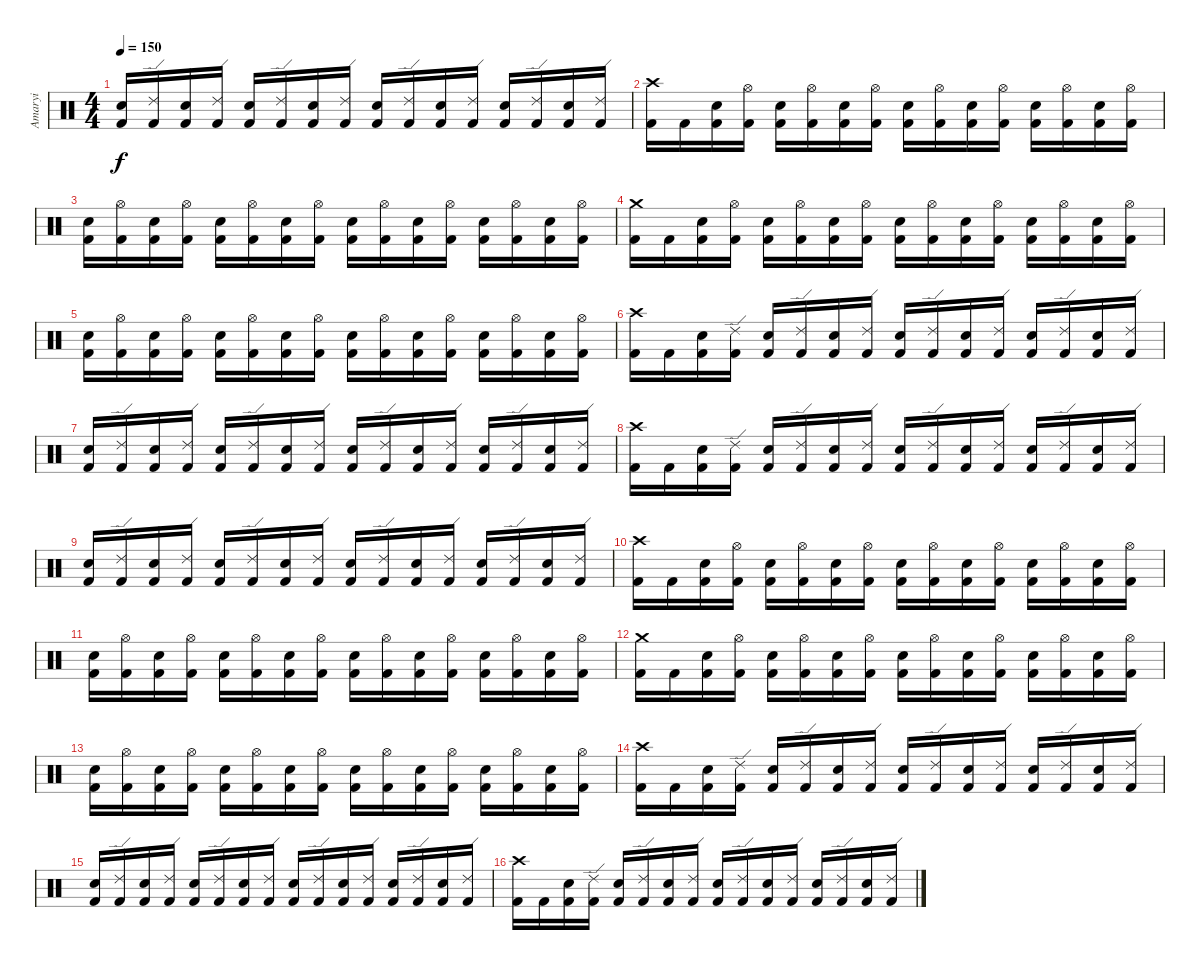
\track ("Amaryi" "Amaryi") {instrument percussion}
\staff {score}
\articulation defaults
\ts (4 4)
\tempo 150
\clef neutral
\ks c
("Electric Snare (hit)" "Kick (hit) 2").16{dy f} ("Ride (edge) 2" "Kick (hit) 2").16 ("Electric Snare (hit)" "Kick (hit) 2").16 ("Ride (edge) 2" "Kick (hit) 2").16 ("Electric Snare (hit)" "Kick (hit) 2").16 ("Ride (edge) 2" "Kick (hit) 2").16 ("Electric Snare (hit)" "Kick (hit) 2").16 ("Ride (edge) 2" "Kick (hit) 2").16 ("Electric Snare (hit)" "Kick (hit) 2").16 ("Ride (edge) 2" "Kick (hit) 2").16 ("Electric Snare (hit)" "Kick (hit) 2").16 ("Ride (edge) 2" "Kick (hit) 2").16 ("Electric Snare (hit)" "Kick (hit) 2").16 ("Ride (edge) 2" "Kick (hit) 2").16 ("Electric Snare (hit)" "Kick (hit) 2").16 ("Ride (edge) 2" "Kick (hit) 2").16 |
("Crash high (hit)" "Kick (hit) 2").16 "Kick (hit) 2".16 ("Electric Snare (hit)" "Kick (hit) 2").16 ("Hi-Hat (open)" "Kick (hit) 2").16 ("Electric Snare (hit)" "Kick (hit) 2").16 ("Hi-Hat (open)" "Kick (hit) 2").16 ("Electric Snare (hit)" "Kick (hit) 2").16 ("Hi-Hat (open)" "Kick (hit) 2").16 ("Electric Snare (hit)" "Kick (hit) 2").16 ("Hi-Hat (open)" "Kick (hit) 2").16 ("Electric Snare (hit)" "Kick (hit) 2").16 ("Hi-Hat (open)" "Kick (hit) 2").16 ("Electric Snare (hit)" "Kick (hit) 2").16 ("Hi-Hat (open)" "Kick (hit) 2").16 ("Electric Snare (hit)" "Kick (hit) 2").16 ("Hi-Hat (open)" "Kick (hit) 2").16 |
("Electric Snare (hit)" "Kick (hit) 2").16 ("Hi-Hat (open)" "Kick (hit) 2").16 ("Electric Snare (hit)" "Kick (hit) 2").16 ("Hi-Hat (open)" "Kick (hit) 2").16 ("Electric Snare (hit)" "Kick (hit) 2").16 ("Hi-Hat (open)" "Kick (hit) 2").16 ("Electric Snare (hit)" "Kick (hit) 2").16 ("Hi-Hat (open)" "Kick (hit) 2").16 ("Electric Snare (hit)" "Kick (hit) 2").16 ("Hi-Hat (open)" "Kick (hit) 2").16 ("Electric Snare (hit)" "Kick (hit) 2").16 ("Hi-Hat (open)" "Kick (hit) 2").16 ("Electric Snare (hit)" "Kick (hit) 2").16 ("Hi-Hat (open)" "Kick (hit) 2").16 ("Electric Snare (hit)" "Kick (hit) 2").16 ("Hi-Hat (open)" "Kick (hit) 2").16 |
("Crash medium (hit)" "Kick (hit) 2").16 "Kick (hit) 2".16 ("Electric Snare (hit)" "Kick (hit) 2").16 ("Hi-Hat (open)" "Kick (hit) 2").16 ("Electric Snare (hit)" "Kick (hit) 2").16 ("Hi-Hat (open)" "Kick (hit) 2").16 ("Electric Snare (hit)" "Kick (hit) 2").16 ("Hi-Hat (open)" "Kick (hit) 2").16 ("Electric Snare (hit)" "Kick (hit) 2").16 ("Hi-Hat (open)" "Kick (hit) 2").16 ("Electric Snare (hit)" "Kick (hit) 2").16 ("Hi-Hat (open)" "Kick (hit) 2").16 ("Electric Snare (hit)" "Kick (hit) 2").16 ("Hi-Hat (open)" "Kick (hit) 2").16 ("Electric Snare (hit)" "Kick (hit) 2").16 ("Hi-Hat (open)" "Kick (hit) 2").16 |
("Electric Snare (hit)" "Kick (hit) 2").16 ("Hi-Hat (open)" "Kick (hit) 2").16 ("Electric Snare (hit)" "Kick (hit) 2").16 ("Hi-Hat (open)" "Kick (hit) 2").16 ("Electric Snare (hit)" "Kick (hit) 2").16 ("Hi-Hat (open)" "Kick (hit) 2").16 ("Electric Snare (hit)" "Kick (hit) 2").16 ("Hi-Hat (open)" "Kick (hit) 2").16 ("Electric Snare (hit)" "Kick (hit) 2").16 ("Hi-Hat (open)" "Kick (hit) 2").16 ("Electric Snare (hit)" "Kick (hit) 2").16 ("Hi-Hat (open)" "Kick (hit) 2").16 ("Electric Snare (hit)" "Kick (hit) 2").16 ("Hi-Hat (open)" "Kick (hit) 2").16 ("Electric Snare (hit)" "Kick (hit) 2").16 ("Hi-Hat (open)" "Kick (hit) 2").16 |
("Crash high (hit)" "Kick (hit) 2").16 "Kick (hit) 2".16 ("Electric Snare (hit)" "Kick (hit) 2").16 ("Ride (edge) 2" "Kick (hit) 2").16 ("Electric Snare (hit)" "Kick (hit) 2").16 ("Ride (edge) 2" "Kick (hit) 2").16 ("Electric Snare (hit)" "Kick (hit) 2").16 ("Ride (edge) 2" "Kick (hit) 2").16 ("Electric Snare (hit)" "Kick (hit) 2").16 ("Ride (edge) 2" "Kick (hit) 2").16 ("Electric Snare (hit)" "Kick (hit) 2").16 ("Ride (edge) 2" "Kick (hit) 2").16 ("Electric Snare (hit)" "Kick (hit) 2").16 ("Ride (edge) 2" "Kick (hit) 2").16 ("Electric Snare (hit)" "Kick (hit) 2").16 ("Ride (edge) 2" "Kick (hit) 2").16 |
("Electric Snare (hit)" "Kick (hit) 2").16 ("Ride (edge) 2" "Kick (hit) 2").16 ("Electric Snare (hit)" "Kick (hit) 2").16 ("Ride (edge) 2" "Kick (hit) 2").16 ("Electric Snare (hit)" "Kick (hit) 2").16 ("Ride (edge) 2" "Kick (hit) 2").16 ("Electric Snare (hit)" "Kick (hit) 2").16 ("Ride (edge) 2" "Kick (hit) 2").16 ("Electric Snare (hit)" "Kick (hit) 2").16 ("Ride (edge) 2" "Kick (hit) 2").16 ("Electric Snare (hit)" "Kick (hit) 2").16 ("Ride (edge) 2" "Kick (hit) 2").16 ("Electric Snare (hit)" "Kick (hit) 2").16 ("Ride (edge) 2" "Kick (hit) 2").16 ("Electric Snare (hit)" "Kick (hit) 2").16 ("Ride (edge) 2" "Kick (hit) 2").16 |
("Crash high (hit)" "Kick (hit) 2").16 "Kick (hit) 2".16 ("Electric Snare (hit)" "Kick (hit) 2").16 ("Ride (edge) 2" "Kick (hit) 2").16 ("Electric Snare (hit)" "Kick (hit) 2").16 ("Ride (edge) 2" "Kick (hit) 2").16 ("Electric Snare (hit)" "Kick (hit) 2").16 ("Ride (edge) 2" "Kick (hit) 2").16 ("Electric Snare (hit)" "Kick (hit) 2").16 ("Ride (edge) 2" "Kick (hit) 2").16 ("Electric Snare (hit)" "Kick (hit) 2").16 ("Ride (edge) 2" "Kick (hit) 2").16 ("Electric Snare (hit)" "Kick (hit) 2").16 ("Ride (edge) 2" "Kick (hit) 2").16 ("Electric Snare (hit)" "Kick (hit) 2").16 ("Ride (edge) 2" "Kick (hit) 2").16 |
("Electric Snare (hit)" "Kick (hit) 2").16 ("Ride (edge) 2" "Kick (hit) 2").16 ("Electric Snare (hit)" "Kick (hit) 2").16 ("Ride (edge) 2" "Kick (hit) 2").16 ("Electric Snare (hit)" "Kick (hit) 2").16 ("Ride (edge) 2" "Kick (hit) 2").16 ("Electric Snare (hit)" "Kick (hit) 2").16 ("Ride (edge) 2" "Kick (hit) 2").16 ("Electric Snare (hit)" "Kick (hit) 2").16 ("Ride (edge) 2" "Kick (hit) 2").16 ("Electric Snare (hit)" "Kick (hit) 2").16 ("Ride (edge) 2" "Kick (hit) 2").16 ("Electric Snare (hit)" "Kick (hit) 2").16 ("Ride (edge) 2" "Kick (hit) 2").16 ("Electric Snare (hit)" "Kick (hit) 2").16 ("Ride (edge) 2" "Kick (hit) 2").16 |
("Crash high (hit)" "Kick (hit) 2").16 "Kick (hit) 2".16 ("Electric Snare (hit)" "Kick (hit) 2").16 ("Hi-Hat (open)" "Kick (hit) 2").16 ("Electric Snare (hit)" "Kick (hit) 2").16 ("Hi-Hat (open)" "Kick (hit) 2").16 ("Electric Snare (hit)" "Kick (hit) 2").16 ("Hi-Hat (open)" "Kick (hit) 2").16 ("Electric Snare (hit)" "Kick (hit) 2").16 ("Hi-Hat (open)" "Kick (hit) 2").16 ("Electric Snare (hit)" "Kick (hit) 2").16 ("Hi-Hat (open)" "Kick (hit) 2").16 ("Electric Snare (hit)" "Kick (hit) 2").16 ("Hi-Hat (open)" "Kick (hit) 2").16 ("Electric Snare (hit)" "Kick (hit) 2").16 ("Hi-Hat (open)" "Kick (hit) 2").16 |
("Electric Snare (hit)" "Kick (hit) 2").16 ("Hi-Hat (open)" "Kick (hit) 2").16 ("Electric Snare (hit)" "Kick (hit) 2").16 ("Hi-Hat (open)" "Kick (hit) 2").16 ("Electric Snare (hit)" "Kick (hit) 2").16 ("Hi-Hat (open)" "Kick (hit) 2").16 ("Electric Snare (hit)" "Kick (hit) 2").16 ("Hi-Hat (open)" "Kick (hit) 2").16 ("Electric Snare (hit)" "Kick (hit) 2").16 ("Hi-Hat (open)" "Kick (hit) 2").16 ("Electric Snare (hit)" "Kick (hit) 2").16 ("Hi-Hat (open)" "Kick (hit) 2").16 ("Electric Snare (hit)" "Kick (hit) 2").16 ("Hi-Hat (open)" "Kick (hit) 2").16 ("Electric Snare (hit)" "Kick (hit) 2").16 ("Hi-Hat (open)" "Kick (hit) 2").16 |
("Crash medium (hit)" "Kick (hit) 2").16 "Kick (hit) 2".16 ("Electric Snare (hit)" "Kick (hit) 2").16 ("Hi-Hat (open)" "Kick (hit) 2").16 ("Electric Snare (hit)" "Kick (hit) 2").16 ("Hi-Hat (open)" "Kick (hit) 2").16 ("Electric Snare (hit)" "Kick (hit) 2").16 ("Hi-Hat (open)" "Kick (hit) 2").16 ("Electric Snare (hit)" "Kick (hit) 2").16 ("Hi-Hat (open)" "Kick (hit) 2").16 ("Electric Snare (hit)" "Kick (hit) 2").16 ("Hi-Hat (open)" "Kick (hit) 2").16 ("Electric Snare (hit)" "Kick (hit) 2").16 ("Hi-Hat (open)" "Kick (hit) 2").16 ("Electric Snare (hit)" "Kick (hit) 2").16 ("Hi-Hat (open)" "Kick (hit) 2").16 |
("Electric Snare (hit)" "Kick (hit) 2").16 ("Hi-Hat (open)" "Kick (hit) 2").16 ("Electric Snare (hit)" "Kick (hit) 2").16 ("Hi-Hat (open)" "Kick (hit) 2").16 ("Electric Snare (hit)" "Kick (hit) 2").16 ("Hi-Hat (open)" "Kick (hit) 2").16 ("Electric Snare (hit)" "Kick (hit) 2").16 ("Hi-Hat (open)" "Kick (hit) 2").16 ("Electric Snare (hit)" "Kick (hit) 2").16 ("Hi-Hat (open)" "Kick (hit) 2").16 ("Electric Snare (hit)" "Kick (hit) 2").16 ("Hi-Hat (open)" "Kick (hit) 2").16 ("Electric Snare (hit)" "Kick (hit) 2").16 ("Hi-Hat (open)" "Kick (hit) 2").16 ("Electric Snare (hit)" "Kick (hit) 2").16 ("Hi-Hat (open)" "Kick (hit) 2").16 |
("Crash high (hit)" "Kick (hit) 2").16 "Kick (hit) 2".16 ("Electric Snare (hit)" "Kick (hit) 2").16 ("Ride (edge) 2" "Kick (hit) 2").16 ("Electric Snare (hit)" "Kick (hit) 2").16 ("Ride (edge) 2" "Kick (hit) 2").16 ("Electric Snare (hit)" "Kick (hit) 2").16 ("Ride (edge) 2" "Kick (hit) 2").16 ("Electric Snare (hit)" "Kick (hit) 2").16 ("Ride (edge) 2" "Kick (hit) 2").16 ("Electric Snare (hit)" "Kick (hit) 2").16 ("Ride (edge) 2" "Kick (hit) 2").16 ("Electric Snare (hit)" "Kick (hit) 2").16 ("Ride (edge) 2" "Kick (hit) 2").16 ("Electric Snare (hit)" "Kick (hit) 2").16 ("Ride (edge) 2" "Kick (hit) 2").16 |
("Electric Snare (hit)" "Kick (hit) 2").16 ("Ride (edge) 2" "Kick (hit) 2").16 ("Electric Snare (hit)" "Kick (hit) 2").16 ("Ride (edge) 2" "Kick (hit) 2").16 ("Electric Snare (hit)" "Kick (hit) 2").16 ("Ride (edge) 2" "Kick (hit) 2").16 ("Electric Snare (hit)" "Kick (hit) 2").16 ("Ride (edge) 2" "Kick (hit) 2").16 ("Electric Snare (hit)" "Kick (hit) 2").16 ("Ride (edge) 2" "Kick (hit) 2").16 ("Electric Snare (hit)" "Kick (hit) 2").16 ("Ride (edge) 2" "Kick (hit) 2").16 ("Electric Snare (hit)" "Kick (hit) 2").16 ("Ride (edge) 2" "Kick (hit) 2").16 ("Electric Snare (hit)" "Kick (hit) 2").16 ("Ride (edge) 2" "Kick (hit) 2").16 |
("Crash high (hit)" "Kick (hit) 2").16 "Kick (hit) 2".16 ("Electric Snare (hit)" "Kick (hit) 2").16 ("Ride (edge) 2" "Kick (hit) 2").16 ("Electric Snare (hit)" "Kick (hit) 2").16 ("Ride (edge) 2" "Kick (hit) 2").16 ("Electric Snare (hit)" "Kick (hit) 2").16 ("Ride (edge) 2" "Kick (hit) 2").16 ("Electric Snare (hit)" "Kick (hit) 2").16 ("Ride (edge) 2" "Kick (hit) 2").16 ("Electric Snare (hit)" "Kick (hit) 2").16 ("Ride (edge) 2" "Kick (hit) 2").16 ("Electric Snare (hit)" "Kick (hit) 2").16 ("Ride (edge) 2" "Kick (hit) 2").16 ("Electric Snare (hit)" "Kick (hit) 2").16 ("Ride (edge) 2" "Kick (hit) 2").16
